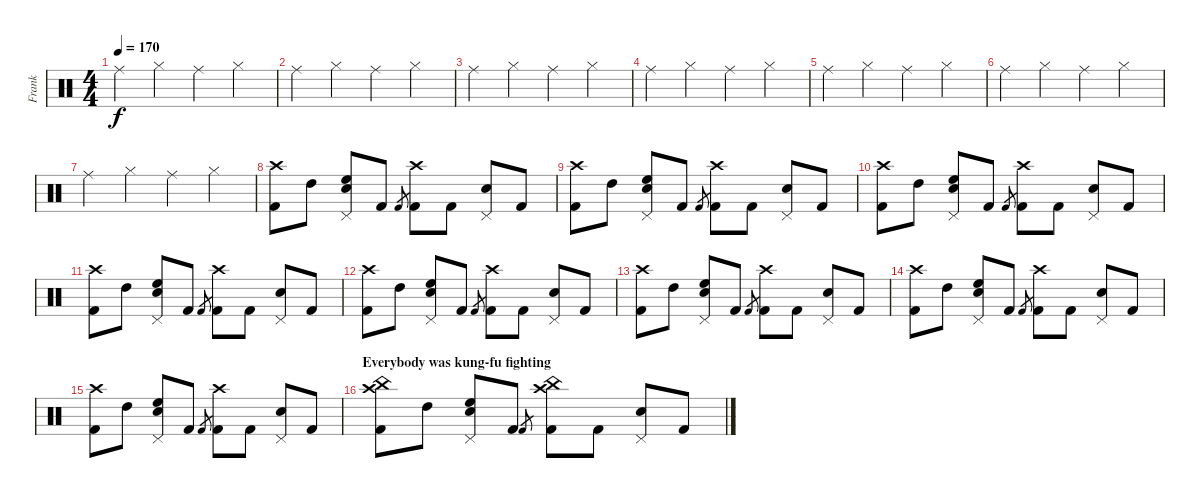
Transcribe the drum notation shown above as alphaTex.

\track ("Frank" "Frank") {instrument percussion}
\staff {score}
\articulation defaults
\ts (4 4)
\tempo 170
\clef neutral
\ks c "Ride (middle)".4{dy f} "Hi-Hat (closed)".4 "Ride (middle)".4 "Hi-Hat (closed)".4
|
"Ride (middle)".4 "Hi-Hat (closed)".4 "Ride (middle)".4 "Hi-Hat (closed)".4 |
"Ride (middle)".4 "Hi-Hat (closed)".4 "Ride (middle)".4 "Hi-Hat (closed)".4 |
"Ride (middle)".4 "Hi-Hat (closed)".4 "Ride (middle)".4 "Hi-Hat (closed)".4 |
"Ride (middle)".4 "Hi-Hat (closed)".4 "Ride (middle)".4 "Hi-Hat (closed)".4 |
"Ride (middle)".4 "Hi-Hat (closed)".4 "Ride (middle)".4 "Hi-Hat (closed)".4 |
"Ride (middle)".4 "Hi-Hat (closed)".4 "Ride (middle)".4 "Hi-Hat (closed)".4 |
("Crash high (hit)" "Kick (hit) 2").8 "High Tom (hit)".8 ("Pedal Hi-Hat (hit)" "High Floor Tom (hit)" "Snare (hit) 2").8 "Kick (hit) 2".8 "Kick (hit) 2".8{gr} ("Crash high (hit)" "Kick (hit) 2").8 "Kick (hit) 2".8 ("Pedal Hi-Hat (hit)" "Snare (hit) 2").8 "Kick (hit) 2".8 |
("Crash high (hit)" "Kick (hit) 2").8 "High Tom (hit)".8 ("Pedal Hi-Hat (hit)" "High Floor Tom (hit)" "Snare (hit) 2").8 "Kick (hit) 2".8 "Kick (hit) 2".8{gr} ("Crash high (hit)" "Kick (hit) 2").8 "Kick (hit) 2".8 ("Pedal Hi-Hat (hit)" "Snare (hit) 2").8 "Kick (hit) 2".8 |
("Crash high (hit)" "Kick (hit) 2").8 "High Tom (hit)".8 ("Pedal Hi-Hat (hit)" "High Floor Tom (hit)" "Snare (hit) 2").8 "Kick (hit) 2".8 "Kick (hit) 2".8{gr} ("Crash high (hit)" "Kick (hit) 2").8 "Kick (hit) 2".8 ("Pedal Hi-Hat (hit)" "Snare (hit) 2").8 "Kick (hit) 2".8 |
("Crash high (hit)" "Kick (hit) 2").8 "High Tom (hit)".8 ("Pedal Hi-Hat (hit)" "High Floor Tom (hit)" "Snare (hit) 2").8 "Kick (hit) 2".8 "Kick (hit) 2".8{gr} ("Crash high (hit)" "Kick (hit) 2").8 "Kick (hit) 2".8 ("Pedal Hi-Hat (hit)" "Snare (hit) 2").8 "Kick (hit) 2".8 |
("Crash high (hit)" "Kick (hit) 2").8 "High Tom (hit)".8 ("Pedal Hi-Hat (hit)" "High Floor Tom (hit)" "Snare (hit) 2").8 "Kick (hit) 2".8 "Kick (hit) 2".8{gr} ("Crash high (hit)" "Kick (hit) 2").8 "Kick (hit) 2".8 ("Pedal Hi-Hat (hit)" "Snare (hit) 2").8 "Kick (hit) 2".8 |
("Crash high (hit)" "Kick (hit) 2").8 "High Tom (hit)".8 ("Pedal Hi-Hat (hit)" "High Floor Tom (hit)" "Snare (hit) 2").8 "Kick (hit) 2".8 "Kick (hit) 2".8{gr} ("Crash high (hit)" "Kick (hit) 2").8 "Kick (hit) 2".8 ("Pedal Hi-Hat (hit)" "Snare (hit) 2").8 "Kick (hit) 2".8 |
("Crash high (hit)" "Kick (hit) 2").8 "High Tom (hit)".8 ("Pedal Hi-Hat (hit)" "High Floor Tom (hit)" "Snare (hit) 2").8 "Kick (hit) 2".8 "Kick (hit) 2".8{gr} ("Crash high (hit)" "Kick (hit) 2").8 "Kick (hit) 2".8 ("Pedal Hi-Hat (hit)" "Snare (hit) 2").8 "Kick (hit) 2".8 |
("Crash high (hit)" "Kick (hit) 2").8 "High Tom (hit)".8 ("Pedal Hi-Hat (hit)" "High Floor Tom (hit)" "Snare (hit) 2").8 "Kick (hit) 2".8 "Kick (hit) 2".8{gr} ("Crash high (hit)" "Kick (hit) 2").8 "Kick (hit) 2".8 ("Pedal Hi-Hat (hit)" "Snare (hit) 2").8 "Kick (hit) 2".8 |
\section ("" "Everybody was kung-fu fighting")
("Crash high (hit)" "China (hit)" "Kick (hit) 2").8 "High Tom (hit)".8 ("Pedal Hi-Hat (hit)" "High Floor Tom (hit)" "Snare (hit) 2").8 "Kick (hit) 2".8 "Kick (hit) 2".8{gr} ("Crash high (hit)" "China (hit)" "Kick (hit) 2").8 "Kick (hit) 2".8 ("Pedal Hi-Hat (hit)" "Snare (hit) 2").8 "Kick (hit) 2".8
